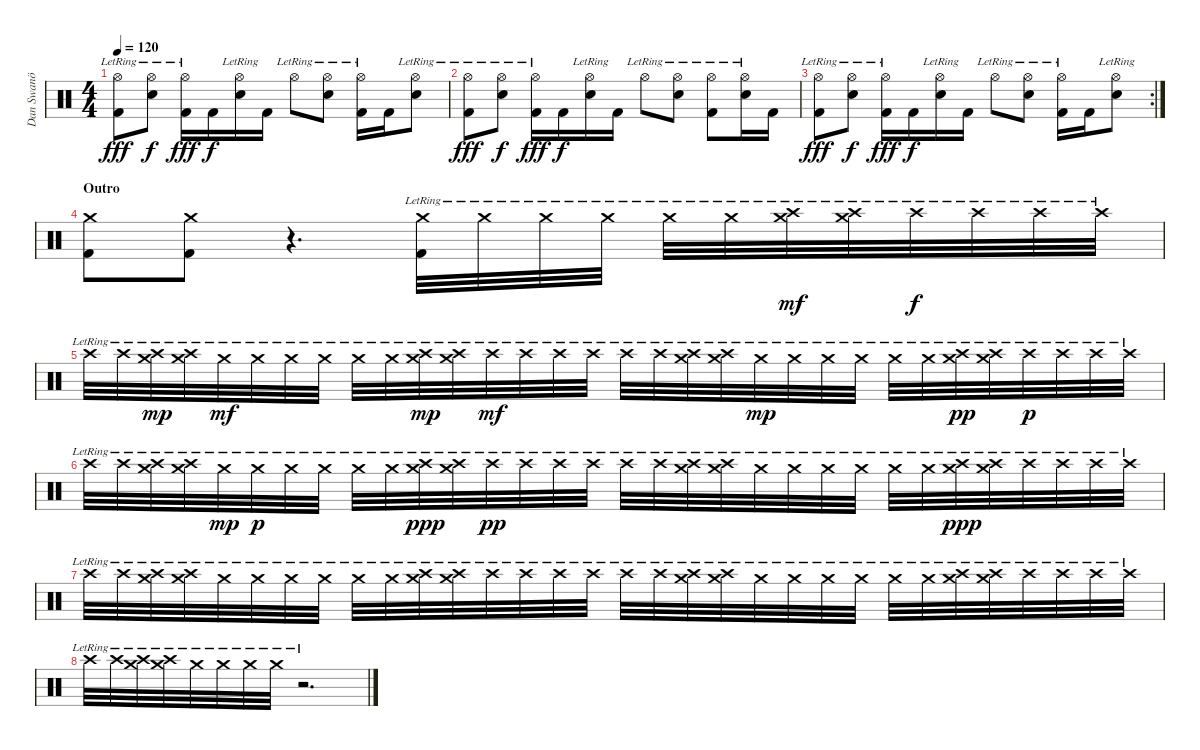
\track ("Dan Swanö" "Dan Swanö") {instrument percussion}
\staff {score}
\articulation defaults
\ts (4 4)
\tempo 120
\clef neutral
\ks c
("Hi-Hat (open)"{lr} "Kick (hit) 2").8{dy fff} ("Hi-Hat (open)"{lr} "Electric Snare (hit)").8{dy f} ("Hi-Hat (open)"{lr} "Kick (hit) 2").16{dy fff} "Kick (hit) 2".16{dy f} ("Hi-Hat (open)"{lr} "Electric Snare (hit)").16 "Kick (hit) 2".16 "Hi-Hat (open)"{lr}.8 ("Hi-Hat (open)"{lr} "Electric Snare (hit)").8 ("Hi-Hat (open)"{lr} "Kick (hit) 2").16 "Kick (hit) 2".16 ("Hi-Hat (open)"{lr} "Electric Snare (hit)").8 |
("Hi-Hat (open)"{lr} "Kick (hit) 2").8{dy fff} ("Hi-Hat (open)"{lr} "Electric Snare (hit)").8{dy f} ("Hi-Hat (open)"{lr} "Kick (hit) 2").16{dy fff} "Kick (hit) 2".16{dy f} ("Hi-Hat (open)"{lr} "Electric Snare (hit)").16 "Kick (hit) 2".16 "Hi-Hat (open)"{lr}.8 ("Hi-Hat (open)"{lr} "Electric Snare (hit)").8 ("Hi-Hat (open)"{lr} "Kick (hit) 2").8 ("Hi-Hat (open)"{lr} "Electric Snare (hit)").16 "Kick (hit) 2".16 |
\rc 2
("Hi-Hat (open)"{lr} "Kick (hit) 2").8{dy fff} ("Hi-Hat (open)"{lr} "Electric Snare (hit)").8{dy f} ("Hi-Hat (open)"{lr} "Kick (hit) 2").16{dy fff} "Kick (hit) 2".16{dy f} ("Hi-Hat (open)"{lr} "Electric Snare (hit)").16 "Kick (hit) 2".16 "Hi-Hat (open)"{lr}.8 ("Hi-Hat (open)"{lr} "Electric Snare (hit)").8 ("Hi-Hat (open)"{lr} "Kick (hit) 2").16 "Kick (hit) 2".16 ("Hi-Hat (open)"{lr} "Electric Snare (hit)").8 |
\section ("" "Outro")
("Crash medium (hit)" "Kick (hit) 2").8 ("Crash medium (hit)" "Kick (hit) 2").8 r.4{d} ("Crash medium (hit)"{lr} "Kick (hit) 2").32 "Crash medium (hit)"{lr}.32 "Crash medium (hit)"{lr}.32 "Crash medium (hit)"{lr}.32 "Crash medium (hit)"{lr}.32 "Crash medium (hit)"{lr}.32 ("Crash medium (hit)"{lr} "Crash high (hit)"{lr}).32{dy mf} ("Crash medium (hit)"{lr} "Crash high (hit)"{lr}).32 "Crash high (hit)"{lr}.32{dy f} "Crash high (hit)"{lr}.32 "Crash high (hit)"{lr}.32 "Crash high (hit)"{lr}.32 |
"Crash high (hit)"{lr}.32 "Crash high (hit)"{lr}.32 ("Crash medium (hit)"{lr} "Crash high (hit)"{lr}).32{dy mp} ("Crash medium (hit)"{lr} "Crash high (hit)"{lr}).32 "Crash medium (hit)"{lr}.32{dy mf} "Crash medium (hit)"{lr}.32 "Crash medium (hit)"{lr}.32 "Crash medium (hit)"{lr}.32 "Crash medium (hit)"{lr}.32 "Crash medium (hit)"{lr}.32 ("Crash medium (hit)"{lr} "Crash high (hit)"{lr}).32{dy mp} ("Crash medium (hit)"{lr} "Crash high (hit)"{lr}).32 "Crash high (hit)"{lr}.32{dy mf} "Crash high (hit)"{lr}.32 "Crash high (hit)"{lr}.32 "Crash high (hit)"{lr}.32 "Crash high (hit)"{lr}.32 "Crash high (hit)"{lr}.32 ("Crash medium (hit)"{lr} "Crash high (hit)"{lr}).32 ("Crash medium (hit)"{lr} "Crash high (hit)"{lr}).32 "Crash medium (hit)"{lr}.32{dy mp} "Crash medium (hit)"{lr}.32 "Crash medium (hit)"{lr}.32 "Crash medium (hit)"{lr}.32 "Crash medium (hit)"{lr}.32 "Crash medium (hit)"{lr}.32 ("Crash medium (hit)"{lr} "Crash high (hit)"{lr}).32{dy pp} ("Crash medium (hit)"{lr} "Crash high (hit)"{lr}).32 "Crash high (hit)"{lr}.32{dy p} "Crash high (hit)"{lr}.32 "Crash high (hit)"{lr}.32 "Crash high (hit)"{lr}.32 |
"Crash high (hit)"{lr}.32 "Crash high (hit)"{lr}.32 ("Crash medium (hit)"{lr} "Crash high (hit)"{lr}).32 ("Crash medium (hit)"{lr} "Crash high (hit)"{lr}).32 "Crash medium (hit)"{lr}.32{dy mp} "Crash medium (hit)"{lr}.32{dy p} "Crash medium (hit)"{lr}.32 "Crash medium (hit)"{lr}.32 "Crash medium (hit)"{lr}.32 "Crash medium (hit)"{lr}.32 ("Crash medium (hit)"{lr} "Crash high (hit)"{lr}).32{dy ppp} ("Crash medium (hit)"{lr} "Crash high (hit)"{lr}).32 "Crash high (hit)"{lr}.32{dy pp} "Crash high (hit)"{lr}.32 "Crash high (hit)"{lr}.32 "Crash high (hit)"{lr}.32 "Crash high (hit)"{lr}.32 "Crash high (hit)"{lr}.32 ("Crash medium (hit)"{lr} "Crash high (hit)"{lr}).32 ("Crash medium (hit)"{lr} "Crash high (hit)"{lr}).32 "Crash medium (hit)"{lr}.32 "Crash medium (hit)"{lr}.32 "Crash medium (hit)"{lr}.32 "Crash medium (hit)"{lr}.32 "Crash medium (hit)"{lr}.32 "Crash medium (hit)"{lr}.32 ("Crash medium (hit)"{lr} "Crash high (hit)"{lr}).32{dy ppp} ("Crash medium (hit)"{lr} "Crash high (hit)"{lr}).32 "Crash high (hit)"{lr}.32 "Crash high (hit)"{lr}.32 "Crash high (hit)"{lr}.32 "Crash high (hit)"{lr}.32 |
"Crash high (hit)"{lr}.32 "Crash high (hit)"{lr}.32 ("Crash medium (hit)"{lr} "Crash high (hit)"{lr}).32 ("Crash medium (hit)"{lr} "Crash high (hit)"{lr}).32 "Crash medium (hit)"{lr}.32 "Crash medium (hit)"{lr}.32 "Crash medium (hit)"{lr}.32 "Crash medium (hit)"{lr}.32 "Crash medium (hit)"{lr}.32 "Crash medium (hit)"{lr}.32 ("Crash medium (hit)"{lr} "Crash high (hit)"{lr}).32 ("Crash medium (hit)"{lr} "Crash high (hit)"{lr}).32 "Crash high (hit)"{lr}.32 "Crash high (hit)"{lr}.32 "Crash high (hit)"{lr}.32 "Crash high (hit)"{lr}.32 "Crash high (hit)"{lr}.32 "Crash high (hit)"{lr}.32 ("Crash medium (hit)"{lr} "Crash high (hit)"{lr}).32 ("Crash medium (hit)"{lr} "Crash high (hit)"{lr}).32 "Crash medium (hit)"{lr}.32 "Crash medium (hit)"{lr}.32 "Crash medium (hit)"{lr}.32 "Crash medium (hit)"{lr}.32 "Crash medium (hit)"{lr}.32 "Crash medium (hit)"{lr}.32 ("Crash medium (hit)"{lr} "Crash high (hit)"{lr}).32 ("Crash medium (hit)"{lr} "Crash high (hit)"{lr}).32 "Crash high (hit)"{lr}.32 "Crash high (hit)"{lr}.32 "Crash high (hit)"{lr}.32 "Crash high (hit)"{lr}.32 |
"Crash high (hit)"{lr}.32 "Crash high (hit)"{lr}.32 ("Crash medium (hit)"{lr} "Crash high (hit)"{lr}).32 ("Crash medium (hit)"{lr} "Crash high (hit)"{lr}).32 "Crash medium (hit)"{lr}.32 "Crash medium (hit)"{lr}.32 "Crash medium (hit)"{lr}.32 "Crash medium (hit)"{lr}.32 r.2{d}
